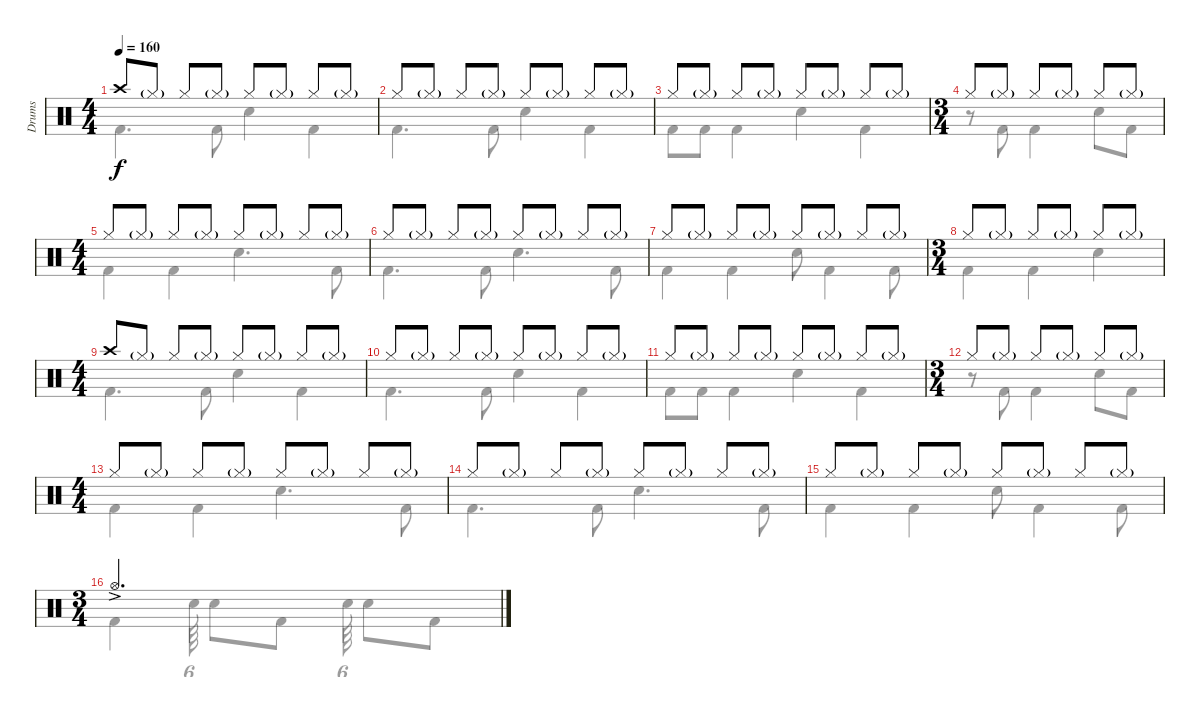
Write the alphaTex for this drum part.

\track ("Drums" "Drums") {instrument percussion}
\staff {score}
\articulation defaults
\voice
\ts (4 4)
\tempo 160
\clef neutral
\ks c "Crash high (hit)".8{dy f} "Hi-Hat (closed)"{g}.8 "Hi-Hat (closed)".8 "Hi-Hat (closed)"{g}.8 "Hi-Hat (closed)".8 "Hi-Hat (closed)"{g}.8 "Hi-Hat (closed)".8 "Hi-Hat (closed)"{g}.8
|
"Hi-Hat (closed)".8 "Hi-Hat (closed)"{g}.8 "Hi-Hat (closed)".8 "Hi-Hat (closed)"{g}.8 "Hi-Hat (closed)".8 "Hi-Hat (closed)"{g}.8 "Hi-Hat (closed)".8 "Hi-Hat (closed)"{g}.8 |
"Hi-Hat (closed)".8 "Hi-Hat (closed)"{g}.8 "Hi-Hat (closed)".8 "Hi-Hat (closed)"{g}.8 "Hi-Hat (closed)".8 "Hi-Hat (closed)"{g}.8 "Hi-Hat (closed)".8 "Hi-Hat (closed)"{g}.8 |
\ts (3 4)
"Hi-Hat (closed)".8 "Hi-Hat (closed)"{g}.8 "Hi-Hat (closed)".8 "Hi-Hat (closed)"{g}.8 "Hi-Hat (closed)".8 "Hi-Hat (closed)"{g}.8 |
\ts (4 4)
"Hi-Hat (closed)".8 "Hi-Hat (closed)"{g}.8 "Hi-Hat (closed)".8 "Hi-Hat (closed)"{g}.8 "Hi-Hat (closed)".8 "Hi-Hat (closed)"{g}.8 "Hi-Hat (closed)".8 "Hi-Hat (closed)"{g}.8 |
"Hi-Hat (closed)".8 "Hi-Hat (closed)"{g}.8 "Hi-Hat (closed)".8 "Hi-Hat (closed)"{g}.8 "Hi-Hat (closed)".8 "Hi-Hat (closed)"{g}.8 "Hi-Hat (closed)".8 "Hi-Hat (closed)"{g}.8 |
"Hi-Hat (closed)".8 "Hi-Hat (closed)"{g}.8 "Hi-Hat (closed)".8 "Hi-Hat (closed)"{g}.8 "Hi-Hat (closed)".8 "Hi-Hat (closed)"{g}.8 "Hi-Hat (closed)".8 "Hi-Hat (closed)"{g}.8 |
\ts (3 4)
"Hi-Hat (closed)".8 "Hi-Hat (closed)"{g}.8 "Hi-Hat (closed)".8 "Hi-Hat (closed)"{g}.8 "Hi-Hat (closed)".8 "Hi-Hat (closed)"{g}.8 |
\ts (4 4)
"Crash high (hit)".8 "Hi-Hat (closed)"{g}.8 "Hi-Hat (closed)".8 "Hi-Hat (closed)"{g}.8 "Hi-Hat (closed)".8 "Hi-Hat (closed)"{g}.8 "Hi-Hat (closed)".8 "Hi-Hat (closed)"{g}.8 |
"Hi-Hat (closed)".8 "Hi-Hat (closed)"{g}.8 "Hi-Hat (closed)".8 "Hi-Hat (closed)"{g}.8 "Hi-Hat (closed)".8 "Hi-Hat (closed)"{g}.8 "Hi-Hat (closed)".8 "Hi-Hat (closed)"{g}.8 |
"Hi-Hat (closed)".8 "Hi-Hat (closed)"{g}.8 "Hi-Hat (closed)".8 "Hi-Hat (closed)"{g}.8 "Hi-Hat (closed)".8 "Hi-Hat (closed)"{g}.8 "Hi-Hat (closed)".8 "Hi-Hat (closed)"{g}.8 |
\ts (3 4)
"Hi-Hat (closed)".8 "Hi-Hat (closed)"{g}.8 "Hi-Hat (closed)".8 "Hi-Hat (closed)"{g}.8 "Hi-Hat (closed)".8 "Hi-Hat (closed)"{g}.8 |
\ts (4 4)
"Hi-Hat (closed)".8 "Hi-Hat (closed)"{g}.8 "Hi-Hat (closed)".8 "Hi-Hat (closed)"{g}.8 "Hi-Hat (closed)".8 "Hi-Hat (closed)"{g}.8 "Hi-Hat (closed)".8 "Hi-Hat (closed)"{g}.8 |
"Hi-Hat (closed)".8 "Hi-Hat (closed)"{g}.8 "Hi-Hat (closed)".8 "Hi-Hat (closed)"{g}.8 "Hi-Hat (closed)".8 "Hi-Hat (closed)"{g}.8 "Hi-Hat (closed)".8 "Hi-Hat (closed)"{g}.8 |
"Hi-Hat (closed)".8 "Hi-Hat (closed)"{g}.8 "Hi-Hat (closed)".8 "Hi-Hat (closed)"{g}.8 "Hi-Hat (closed)".8 "Hi-Hat (closed)"{g}.8 "Hi-Hat (closed)".8 "Hi-Hat (closed)"{g}.8 |
\ts (3 4)
"Hi-Hat (open)"{ac}.2{d}
\voice
\clef neutral
\ottava regular
\simile none
\ks c "Kick (hit) 2".4{d dy f} "Kick (hit) 2".8 "Snare (hit) 2".4 "Kick (hit) 2".4
|
"Kick (hit) 2".4{d} "Kick (hit) 2".8 "Snare (hit) 2".4 "Kick (hit) 2".4 |
"Kick (hit) 2".8 "Kick (hit) 2".8 "Kick (hit) 2".4 "Snare (hit) 2".4 "Kick (hit) 2".4 |
r.8 "Kick (hit) 2".8 "Kick (hit) 2".4 "Snare (hit) 2".8 "Kick (hit) 2".8 |
"Kick (hit) 2".4 "Kick (hit) 2".4 "Snare (hit) 2".4{d} "Kick (hit) 2".8 |
"Kick (hit) 2".4{d} "Kick (hit) 2".8 "Snare (hit) 2".4{d} "Kick (hit) 2".8 |
"Kick (hit) 2".4 "Kick (hit) 2".4 "Snare (hit) 2".8 "Kick (hit) 2".4 "Kick (hit) 2".8 |
"Kick (hit) 2".4 "Kick (hit) 2".4 "Snare (hit) 2".4 |
"Kick (hit) 2".4{d} "Kick (hit) 2".8 "Snare (hit) 2".4 "Kick (hit) 2".4 |
"Kick (hit) 2".4{d} "Kick (hit) 2".8 "Snare (hit) 2".4 "Kick (hit) 2".4 |
"Kick (hit) 2".8 "Kick (hit) 2".8 "Kick (hit) 2".4 "Snare (hit) 2".4 "Kick (hit) 2".4 |
r.8 "Kick (hit) 2".8 "Kick (hit) 2".4 "Snare (hit) 2".8 "Kick (hit) 2".8 |
"Kick (hit) 2".4 "Kick (hit) 2".4 "Snare (hit) 2".4{d} "Kick (hit) 2".8 |
"Kick (hit) 2".4{d} "Kick (hit) 2".8 "Snare (hit) 2".4{d} "Kick (hit) 2".8 |
"Kick (hit) 2".4 "Kick (hit) 2".4 "Snare (hit) 2".8 "Kick (hit) 2".4 "Kick (hit) 2".8 |
"Kick (hit) 2".4 "Snare (hit) 2".64{tu (6 4)} "Snare (hit) 2".8 "Kick (hit) 2".8 "Snare (hit) 2".64{tu (6 4)} "Snare (hit) 2".8 "Kick (hit) 2".8
